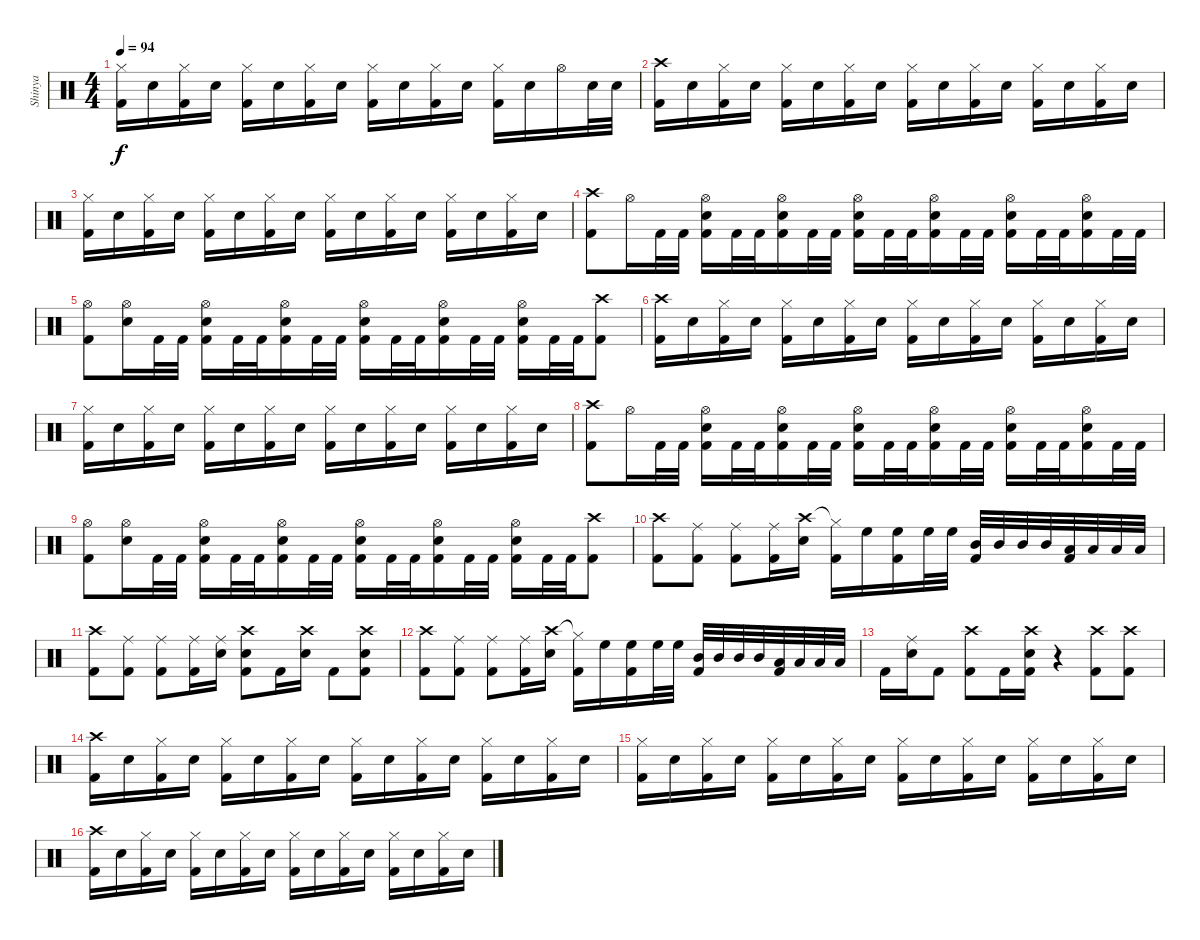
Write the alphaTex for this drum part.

\track ("Shinya" "Shinya") {instrument percussion}
\staff {score}
\articulation defaults
\ts (4 4)
\tempo 94
\clef neutral
\ks c
("Hi-Hat (closed)" "Kick (hit) 2").16{dy f} "Snare (hit) 2".16 ("Hi-Hat (closed)" "Kick (hit) 2").16 "Snare (hit) 2".16 ("Hi-Hat (closed)" "Kick (hit) 2").16 "Snare (hit) 2".16 ("Hi-Hat (closed)" "Kick (hit) 2").16 "Snare (hit) 2".16 ("Hi-Hat (closed)" "Kick (hit) 2").16 "Snare (hit) 2".16 ("Hi-Hat (closed)" "Kick (hit) 2").16 "Snare (hit) 2".16 ("Hi-Hat (closed)" "Kick (hit) 2").16 "Snare (hit) 2".16 "Hi-Hat (open)".16 "Snare (hit) 2".32 "Snare (hit) 2".32 |
("Crash high (hit)" "Kick (hit) 2").16 "Snare (hit) 2".16 ("Hi-Hat (closed)" "Kick (hit) 2").16 "Snare (hit) 2".16 ("Hi-Hat (closed)" "Kick (hit) 2").16 "Snare (hit) 2".16 ("Hi-Hat (closed)" "Kick (hit) 2").16 "Snare (hit) 2".16 ("Hi-Hat (closed)" "Kick (hit) 2").16 "Snare (hit) 2".16 ("Hi-Hat (closed)" "Kick (hit) 2").16 "Snare (hit) 2".16 ("Hi-Hat (closed)" "Kick (hit) 2").16 "Snare (hit) 2".16 ("Hi-Hat (closed)" "Kick (hit) 2").16 "Snare (hit) 2".16 |
("Hi-Hat (closed)" "Kick (hit) 2").16 "Snare (hit) 2".16 ("Hi-Hat (closed)" "Kick (hit) 2").16 "Snare (hit) 2".16 ("Hi-Hat (closed)" "Kick (hit) 2").16 "Snare (hit) 2".16 ("Hi-Hat (closed)" "Kick (hit) 2").16 "Snare (hit) 2".16 ("Hi-Hat (closed)" "Kick (hit) 2").16 "Snare (hit) 2".16 ("Hi-Hat (closed)" "Kick (hit) 2").16 "Snare (hit) 2".16 ("Hi-Hat (closed)" "Kick (hit) 2").16 "Snare (hit) 2".16 ("Hi-Hat (closed)" "Kick (hit) 2").16 "Snare (hit) 2".16 |
("Crash high (hit)" "Kick (hit) 2").8 "Hi-Hat (open)".16 "Kick (hit) 2".32 "Kick (hit) 2".32 ("Snare (hit) 2" "Hi-Hat (open)" "Kick (hit) 2").16 "Kick (hit) 2".32 "Kick (hit) 2".32 ("Snare (hit) 2" "Hi-Hat (open)" "Kick (hit) 2").16 "Kick (hit) 2".32 "Kick (hit) 2".32 ("Snare (hit) 2" "Hi-Hat (open)" "Kick (hit) 2").16 "Kick (hit) 2".32 "Kick (hit) 2".32 ("Snare (hit) 2" "Hi-Hat (open)" "Kick (hit) 2").16 "Kick (hit) 2".32 "Kick (hit) 2".32 ("Snare (hit) 2" "Hi-Hat (open)" "Kick (hit) 2").16 "Kick (hit) 2".32 "Kick (hit) 2".32 ("Hi-Hat (open)" "Snare (hit) 2" "Kick (hit) 2").16 "Kick (hit) 2".32 "Kick (hit) 2".32 |
("Hi-Hat (open)" "Kick (hit) 2").8 ("Hi-Hat (open)" "Snare (hit) 2").16 "Kick (hit) 2".32 "Kick (hit) 2".32 ("Snare (hit) 2" "Hi-Hat (open)" "Kick (hit) 2").16 "Kick (hit) 2".32 "Kick (hit) 2".32 ("Snare (hit) 2" "Hi-Hat (open)" "Kick (hit) 2").16 "Kick (hit) 2".32 "Kick (hit) 2".32 ("Snare (hit) 2" "Hi-Hat (open)" "Kick (hit) 2").16 "Kick (hit) 2".32 "Kick (hit) 2".32 ("Snare (hit) 2" "Hi-Hat (open)" "Kick (hit) 2").16 "Kick (hit) 2".32 "Kick (hit) 2".32 ("Snare (hit) 2" "Hi-Hat (open)" "Kick (hit) 2").16 "Kick (hit) 2".32 "Kick (hit) 2".32 ("Crash high (hit)" "Kick (hit) 2").8 |
("Crash high (hit)" "Kick (hit) 2").16 "Snare (hit) 2".16 ("Hi-Hat (closed)" "Kick (hit) 2").16 "Snare (hit) 2".16 ("Hi-Hat (closed)" "Kick (hit) 2").16 "Snare (hit) 2".16 ("Hi-Hat (closed)" "Kick (hit) 2").16 "Snare (hit) 2".16 ("Hi-Hat (closed)" "Kick (hit) 2").16 "Snare (hit) 2".16 ("Hi-Hat (closed)" "Kick (hit) 2").16 "Snare (hit) 2".16 ("Hi-Hat (closed)" "Kick (hit) 2").16 "Snare (hit) 2".16 ("Hi-Hat (closed)" "Kick (hit) 2").16 "Snare (hit) 2".16 |
("Hi-Hat (closed)" "Kick (hit) 2").16 "Snare (hit) 2".16 ("Hi-Hat (closed)" "Kick (hit) 2").16 "Snare (hit) 2".16 ("Hi-Hat (closed)" "Kick (hit) 2").16 "Snare (hit) 2".16 ("Hi-Hat (closed)" "Kick (hit) 2").16 "Snare (hit) 2".16 ("Hi-Hat (closed)" "Kick (hit) 2").16 "Snare (hit) 2".16 ("Hi-Hat (closed)" "Kick (hit) 2").16 "Snare (hit) 2".16 ("Hi-Hat (closed)" "Kick (hit) 2").16 "Snare (hit) 2".16 ("Hi-Hat (closed)" "Kick (hit) 2").16 "Snare (hit) 2".16 |
("Crash high (hit)" "Kick (hit) 2").8 "Hi-Hat (open)".16 "Kick (hit) 2".32 "Kick (hit) 2".32 ("Snare (hit) 2" "Hi-Hat (open)" "Kick (hit) 2").16 "Kick (hit) 2".32 "Kick (hit) 2".32 ("Snare (hit) 2" "Hi-Hat (open)" "Kick (hit) 2").16 "Kick (hit) 2".32 "Kick (hit) 2".32 ("Snare (hit) 2" "Hi-Hat (open)" "Kick (hit) 2").16 "Kick (hit) 2".32 "Kick (hit) 2".32 ("Snare (hit) 2" "Hi-Hat (open)" "Kick (hit) 2").16 "Kick (hit) 2".32 "Kick (hit) 2".32 ("Snare (hit) 2" "Hi-Hat (open)" "Kick (hit) 2").16 "Kick (hit) 2".32 "Kick (hit) 2".32 ("Hi-Hat (open)" "Snare (hit) 2" "Kick (hit) 2").16 "Kick (hit) 2".32 "Kick (hit) 2".32 |
("Hi-Hat (open)" "Kick (hit) 2").8 ("Hi-Hat (open)" "Snare (hit) 2").16 "Kick (hit) 2".32 "Kick (hit) 2".32 ("Snare (hit) 2" "Hi-Hat (open)" "Kick (hit) 2").16 "Kick (hit) 2".32 "Kick (hit) 2".32 ("Snare (hit) 2" "Hi-Hat (open)" "Kick (hit) 2").16 "Kick (hit) 2".32 "Kick (hit) 2".32 ("Snare (hit) 2" "Hi-Hat (open)" "Kick (hit) 2").16 "Kick (hit) 2".32 "Kick (hit) 2".32 ("Snare (hit) 2" "Hi-Hat (open)" "Kick (hit) 2").16 "Kick (hit) 2".32 "Kick (hit) 2".32 ("Snare (hit) 2" "Hi-Hat (open)" "Kick (hit) 2").16 "Kick (hit) 2".32 "Kick (hit) 2".32 ("Crash high (hit)" "Kick (hit) 2").8 |
("Crash high (hit)" "Kick (hit) 2").8 ("Ride (middle)" "Kick (hit) 2").8 ("Ride (middle)" "Kick (hit) 2").8 ("Ride (middle)" "Kick (hit) 2").16 ("Crash high (hit)" "Snare (hit) 2").16 ("Hi-Hat (closed)"{t} "Kick (hit) 2").16 "High Floor Tom (hit)".16 ("High Floor Tom (hit)" "Kick (hit) 2").16 "High Floor Tom (hit)".32 "High Floor Tom (hit)".32 ("Mid Tom (hit)" "Kick (hit) 2").32 "Mid Tom (hit)".32 "Mid Tom (hit)".32 "Mid Tom (hit)".32 ("Low Tom (hit)" "Kick (hit) 2").32 "Low Tom (hit)".32 "Low Tom (hit)".32 "Low Tom (hit)".32 |
("Crash high (hit)" "Kick (hit) 2").8 ("Ride (middle)" "Kick (hit) 2").8 ("Ride (middle)" "Kick (hit) 2").8 ("Ride (middle)" "Kick (hit) 2").16 ("Snare (hit) 2" "Ride (middle)").16 ("Snare (hit) 2" "Crash high (hit)" "Kick (hit) 2").8 "Kick (hit) 2".16 ("Crash high (hit)" "Snare (hit) 2").16 "Kick (hit) 2".8 ("Crash high (hit)" "Snare (hit) 2" "Kick (hit) 2").8 |
("Crash high (hit)" "Kick (hit) 2").8 ("Ride (middle)" "Kick (hit) 2").8 ("Ride (middle)" "Kick (hit) 2").8 ("Ride (middle)" "Kick (hit) 2").16 ("Crash high (hit)" "Snare (hit) 2").16 ("Hi-Hat (closed)"{t} "Kick (hit) 2").16 "High Floor Tom (hit)".16 ("High Floor Tom (hit)" "Kick (hit) 2").16 "High Floor Tom (hit)".32 "High Floor Tom (hit)".32 ("Mid Tom (hit)" "Kick (hit) 2").32 "Mid Tom (hit)".32 "Mid Tom (hit)".32 "Mid Tom (hit)".32 ("Low Tom (hit)" "Kick (hit) 2").32 "Low Tom (hit)".32 "Low Tom (hit)".32 "Low Tom (hit)".32 |
"Kick (hit) 2".16 ("Ride (middle)" "Snare (hit) 2").16 "Kick (hit) 2".8 ("Crash high (hit)" "Kick (hit) 2").8 "Kick (hit) 2".16 ("Crash high (hit)" "Snare (hit) 2" "Kick (hit) 2").16 r.4 ("Crash high (hit)" "Kick (hit) 2").8 ("Crash high (hit)" "Kick (hit) 2").8 |
("Crash high (hit)" "Kick (hit) 2").16 "Snare (hit) 2".16 ("Hi-Hat (closed)" "Kick (hit) 2").16 "Snare (hit) 2".16 ("Hi-Hat (closed)" "Kick (hit) 2").16 "Snare (hit) 2".16 ("Hi-Hat (closed)" "Kick (hit) 2").16 "Snare (hit) 2".16 ("Hi-Hat (closed)" "Kick (hit) 2").16 "Snare (hit) 2".16 ("Hi-Hat (closed)" "Kick (hit) 2").16 "Snare (hit) 2".16 ("Hi-Hat (closed)" "Kick (hit) 2").16 "Snare (hit) 2".16 ("Hi-Hat (closed)" "Kick (hit) 2").16 "Snare (hit) 2".16 |
("Hi-Hat (closed)" "Kick (hit) 2").16 "Snare (hit) 2".16 ("Hi-Hat (closed)" "Kick (hit) 2").16 "Snare (hit) 2".16 ("Hi-Hat (closed)" "Kick (hit) 2").16 "Snare (hit) 2".16 ("Hi-Hat (closed)" "Kick (hit) 2").16 "Snare (hit) 2".16 ("Hi-Hat (closed)" "Kick (hit) 2").16 "Snare (hit) 2".16 ("Hi-Hat (closed)" "Kick (hit) 2").16 "Snare (hit) 2".16 ("Hi-Hat (closed)" "Kick (hit) 2").16 "Snare (hit) 2".16 ("Hi-Hat (closed)" "Kick (hit) 2").16 "Snare (hit) 2".16 |
("Crash high (hit)" "Kick (hit) 2").16 "Snare (hit) 2".16 ("Hi-Hat (closed)" "Kick (hit) 2").16 "Snare (hit) 2".16 ("Hi-Hat (closed)" "Kick (hit) 2").16 "Snare (hit) 2".16 ("Hi-Hat (closed)" "Kick (hit) 2").16 "Snare (hit) 2".16 ("Hi-Hat (closed)" "Kick (hit) 2").16 "Snare (hit) 2".16 ("Hi-Hat (closed)" "Kick (hit) 2").16 "Snare (hit) 2".16 ("Hi-Hat (closed)" "Kick (hit) 2").16 "Snare (hit) 2".16 ("Hi-Hat (closed)" "Kick (hit) 2").16 "Snare (hit) 2".16
